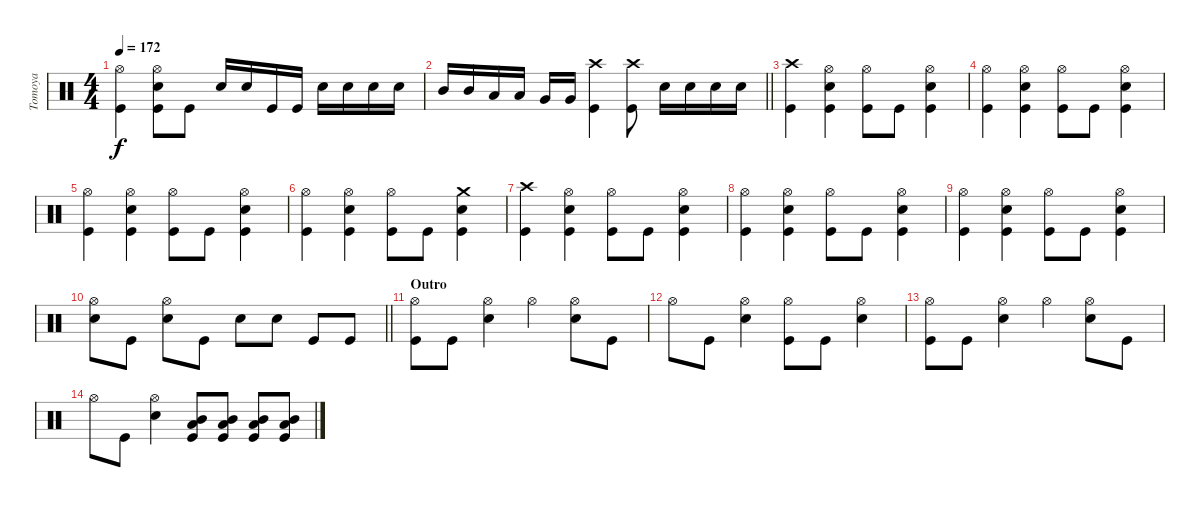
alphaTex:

\track ("Tomoya" "Tomoya") {instrument percussion}
\staff {score}
\articulation defaults
\ts (4 4)
\tempo 172
\clef neutral
\ks c
("Hi-Hat (open)" "Kick (hit)").4{dy f} ("Snare (hit) 2" "Hi-Hat (open)" "Kick (hit)").8 "Kick (hit)".8 "Snare (hit) 2".16 "Snare (hit) 2".16 "Kick (hit)".16 "Kick (hit)".16 "Snare (hit) 2".16 "Snare (hit) 2".16 "Snare (hit) 2".16 "Snare (hit) 2".16 |
\barLineRight lightlight "Mid Tom (hit)".16 "Mid Tom (hit)".16 "Low Tom (hit)".16 "Low Tom (hit)".16 "Very Low Tom (hit)".16 "Very Low Tom (hit)".16
("Crash high (hit)" "Kick (hit)").4 ("Crash high (hit)" "Kick (hit)").8 "Snare (hit) 2".16 "Snare (hit) 2".16 "Snare (hit) 2".16 "Snare (hit) 2".16 |
("Crash high (hit)" "Kick (hit)").4 ("Snare (hit) 2" "Hi-Hat (open)" "Kick (hit)").4 ("Hi-Hat (open)" "Kick (hit)").8 "Kick (hit)".8 ("Snare (hit) 2" "Hi-Hat (open)" "Kick (hit)").4 |
("Hi-Hat (open)" "Kick (hit)").4 ("Snare (hit) 2" "Hi-Hat (open)" "Kick (hit)").4 ("Hi-Hat (open)" "Kick (hit)").8 "Kick (hit)".8 ("Snare (hit) 2" "Hi-Hat (open)" "Kick (hit)").4 |
("Hi-Hat (open)" "Kick (hit)").4 ("Snare (hit) 2" "Hi-Hat (open)" "Kick (hit)").4 ("Hi-Hat (open)" "Kick (hit)").8 "Kick (hit)".8 ("Snare (hit) 2" "Hi-Hat (open)" "Kick (hit)").4 |
("Hi-Hat (open)" "Kick (hit)").4 ("Snare (hit) 2" "Hi-Hat (open)" "Kick (hit)").4 ("Hi-Hat (open)" "Kick (hit)").8 "Kick (hit)".8 ("Snare (hit) 2" "Crash medium (hit)" "Kick (hit)").4 |
("Crash high (hit)" "Kick (hit)").4 ("Snare (hit) 2" "Hi-Hat (open)" "Kick (hit)").4 ("Hi-Hat (open)" "Kick (hit)").8 "Kick (hit)".8 ("Snare (hit) 2" "Hi-Hat (open)" "Kick (hit)").4 |
("Hi-Hat (open)" "Kick (hit)").4 ("Snare (hit) 2" "Hi-Hat (open)" "Kick (hit)").4 ("Hi-Hat (open)" "Kick (hit)").8 "Kick (hit)".8 ("Snare (hit) 2" "Hi-Hat (open)" "Kick (hit)").4 |
("Hi-Hat (open)" "Kick (hit)").4 ("Snare (hit) 2" "Hi-Hat (open)" "Kick (hit)").4 ("Hi-Hat (open)" "Kick (hit)").8 "Kick (hit)".8 ("Snare (hit) 2" "Hi-Hat (open)" "Kick (hit)").4 |
\barLineRight lightlight
("Hi-Hat (open)" "Snare (hit) 2").8 "Kick (hit)".8 ("Hi-Hat (open)" "Snare (hit) 2").8 "Kick (hit)".8 "Snare (hit) 2".8 "Snare (hit) 2".8 "Kick (hit)".8 "Kick (hit)".8 |
\section ("" "Outro")
("Hi-Hat (open)" "Kick (hit)").8 "Kick (hit)".8 ("Hi-Hat (open)" "Snare (hit) 2").4 "Hi-Hat (open)".4 ("Hi-Hat (open)" "Snare (hit) 2").8 "Kick (hit)".8 |
"Hi-Hat (open)".8 "Kick (hit)".8 ("Hi-Hat (open)" "Snare (hit) 2").4 ("Hi-Hat (open)" "Kick (hit)").8 "Kick (hit)".8 ("Hi-Hat (open)" "Snare (hit) 2").4 |
("Hi-Hat (open)" "Kick (hit)").8 "Kick (hit)".8 ("Hi-Hat (open)" "Snare (hit) 2").4 "Hi-Hat (open)".4 ("Hi-Hat (open)" "Snare (hit) 2").8 "Kick (hit)".8 |
"Hi-Hat (open)".8 "Kick (hit)".8 ("Hi-Hat (open)" "Snare (hit) 2").4 ("Mid Tom (hit)" "Low Tom (hit)" "Kick (hit)").8 ("Mid Tom (hit)" "Low Tom (hit)" "Kick (hit)").8 ("Mid Tom (hit)" "Low Tom (hit)" "Kick (hit)").8 ("Mid Tom (hit)" "Low Tom (hit)" "Kick (hit)").8
